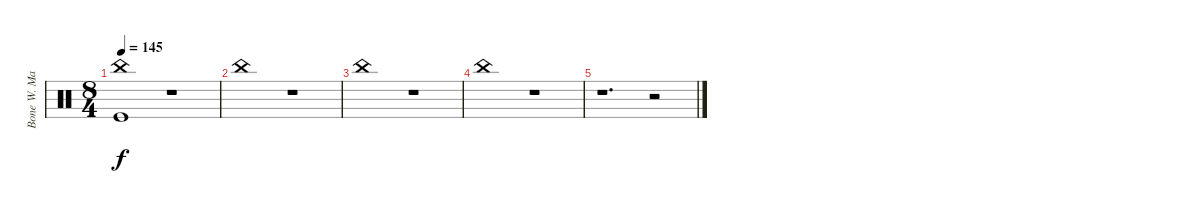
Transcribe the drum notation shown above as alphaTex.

\track ("Bone W. Machine" "Bone W. Ma") {instrument percussion}
\staff {score}
\articulation defaults
\ts (8 4)
\tempo 145
\clef neutral
\ks c
("Kick (hit)" "China (hit)").1{dy f} r.1 |
"China (hit)".1 r.1 |
"China (hit)".1 r.1 |
"China (hit)".1 r.1 |
r.1{d} r.2
